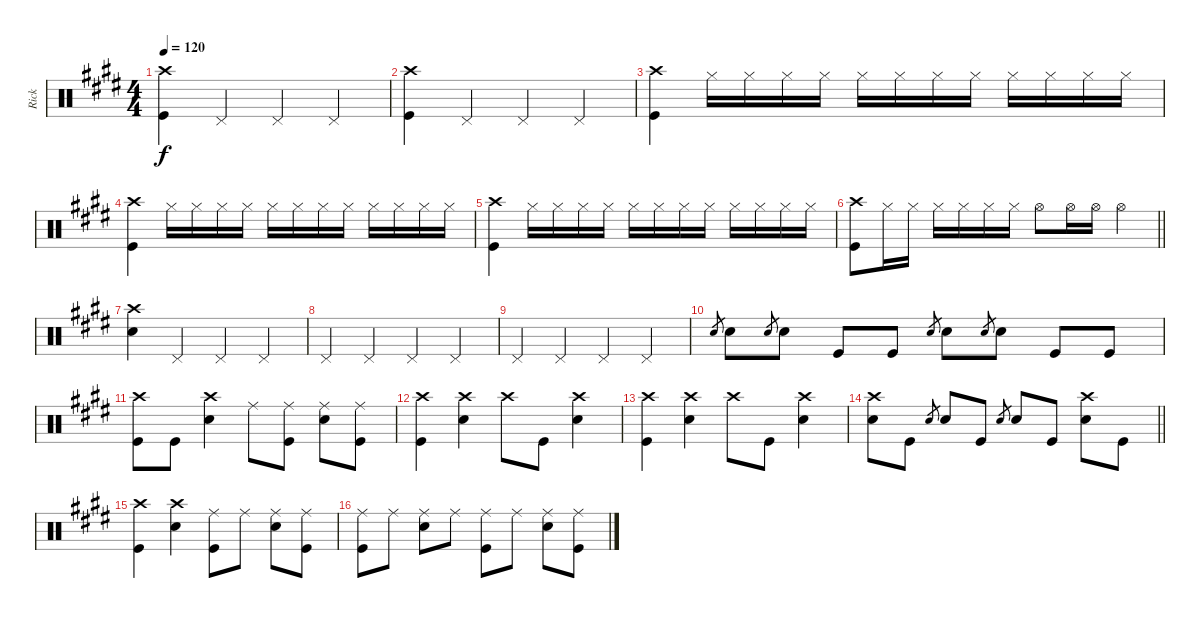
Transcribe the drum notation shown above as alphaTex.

\track ("Rick" "Rick") {instrument percussion}
\staff {score}
\articulation defaults
\ts (4 4)
\tempo 120
\clef neutral
\ks c#minor
("Crash high (hit)" "Kick (hit)").4{dy f} "Pedal Hi-Hat (hit)".4 "Pedal Hi-Hat (hit)".4 "Pedal Hi-Hat (hit)".4 |
("Crash high (hit)" "Kick (hit)").4 "Pedal Hi-Hat (hit)".4 "Pedal Hi-Hat (hit)".4 "Pedal Hi-Hat (hit)".4 |
("Crash high (hit)" "Kick (hit)").4 "Hi-Hat (closed)".16 "Hi-Hat (closed)".16 "Hi-Hat (closed)".16 "Hi-Hat (closed)".16 "Hi-Hat (closed)".16 "Hi-Hat (closed)".16 "Hi-Hat (closed)".16 "Hi-Hat (closed)".16 "Hi-Hat (closed)".16 "Hi-Hat (closed)".16 "Hi-Hat (closed)".16 "Hi-Hat (closed)".16 |
("Crash high (hit)" "Kick (hit)").4 "Hi-Hat (closed)".16 "Hi-Hat (closed)".16 "Hi-Hat (closed)".16 "Hi-Hat (closed)".16 "Hi-Hat (closed)".16 "Hi-Hat (closed)".16 "Hi-Hat (closed)".16 "Hi-Hat (closed)".16 "Hi-Hat (closed)".16 "Hi-Hat (closed)".16 "Hi-Hat (closed)".16 "Hi-Hat (closed)".16 |
("Crash high (hit)" "Kick (hit)").4 "Hi-Hat (closed)".16 "Hi-Hat (closed)".16 "Hi-Hat (closed)".16 "Hi-Hat (closed)".16 "Hi-Hat (closed)".16 "Hi-Hat (closed)".16 "Hi-Hat (closed)".16 "Hi-Hat (closed)".16 "Hi-Hat (closed)".16 "Hi-Hat (closed)".16 "Hi-Hat (closed)".16 "Hi-Hat (closed)".16 |
\barLineRight lightlight
("Crash high (hit)" "Kick (hit)").8 "Hi-Hat (closed)".16 "Hi-Hat (closed)".16 "Hi-Hat (closed)".16 "Hi-Hat (closed)".16 "Hi-Hat (closed)".16 "Hi-Hat (closed)".16 "Hi-Hat (open)".8 "Hi-Hat (open)".16 "Hi-Hat (open)".16 "Hi-Hat (open)".4 |
("Crash high (hit)" "Snare (hit) 2").4 "Pedal Hi-Hat (hit)".4 "Pedal Hi-Hat (hit)".4 "Pedal Hi-Hat (hit)".4 |
"Pedal Hi-Hat (hit)".4 "Pedal Hi-Hat (hit)".4 "Pedal Hi-Hat (hit)".4 "Pedal Hi-Hat (hit)".4 |
"Pedal Hi-Hat (hit)".4 "Pedal Hi-Hat (hit)".4 "Pedal Hi-Hat (hit)".4 "Pedal Hi-Hat (hit)".4 |
"Snare (hit) 2".8{gr} "Snare (hit) 2".8 "Snare (hit) 2".8{gr} "Snare (hit) 2".8 "Kick (hit)".8 "Kick (hit)".8 "Snare (hit) 2".8{gr} "Snare (hit) 2".8 "Snare (hit) 2".8{gr} "Snare (hit) 2".8 "Kick (hit)".8 "Kick (hit)".8 |
("Crash high (hit)" "Kick (hit)").8 "Kick (hit)".8 ("Crash high (hit)" "Snare (hit) 2").4 "Ride (middle)".8 ("Ride (middle)" "Kick (hit)").8 ("Ride (middle)" "Snare (hit) 2").8 ("Ride (middle)" "Kick (hit)").8 |
("Crash high (hit)" "Kick (hit)").4 ("Crash high (hit)" "Snare (hit) 2").4 "Crash high (hit)".8 "Kick (hit)".8 ("Crash high (hit)" "Snare (hit) 2").4 |
("Crash high (hit)" "Kick (hit)").4 ("Crash high (hit)" "Snare (hit) 2").4 "Crash high (hit)".8 "Kick (hit)".8 ("Crash high (hit)" "Snare (hit) 2").4 |
\barLineRight lightlight
("Crash high (hit)" "Snare (hit) 2").8 "Kick (hit)".8 "Snare (hit) 2".8{gr} "Snare (hit) 2".8 "Kick (hit)".8 "Snare (hit) 2".8{gr} "Snare (hit) 2".8 "Kick (hit)".8 ("Crash high (hit)" "Snare (hit) 2").8 "Kick (hit)".8 |
("Crash high (hit)" "Kick (hit)").4 ("Crash high (hit)" "Snare (hit) 2").4 ("Ride (middle)" "Kick (hit)").8 "Ride (middle)".8 ("Ride (middle)" "Snare (hit) 2").8 ("Ride (middle)" "Kick (hit)").8 |
("Ride (middle)" "Kick (hit)").8 "Ride (middle)".8 ("Ride (middle)" "Snare (hit) 2").8 "Ride (middle)".8 ("Ride (middle)" "Kick (hit)").8 "Ride (middle)".8 ("Ride (middle)" "Snare (hit) 2").8 ("Ride (middle)" "Kick (hit)").8
